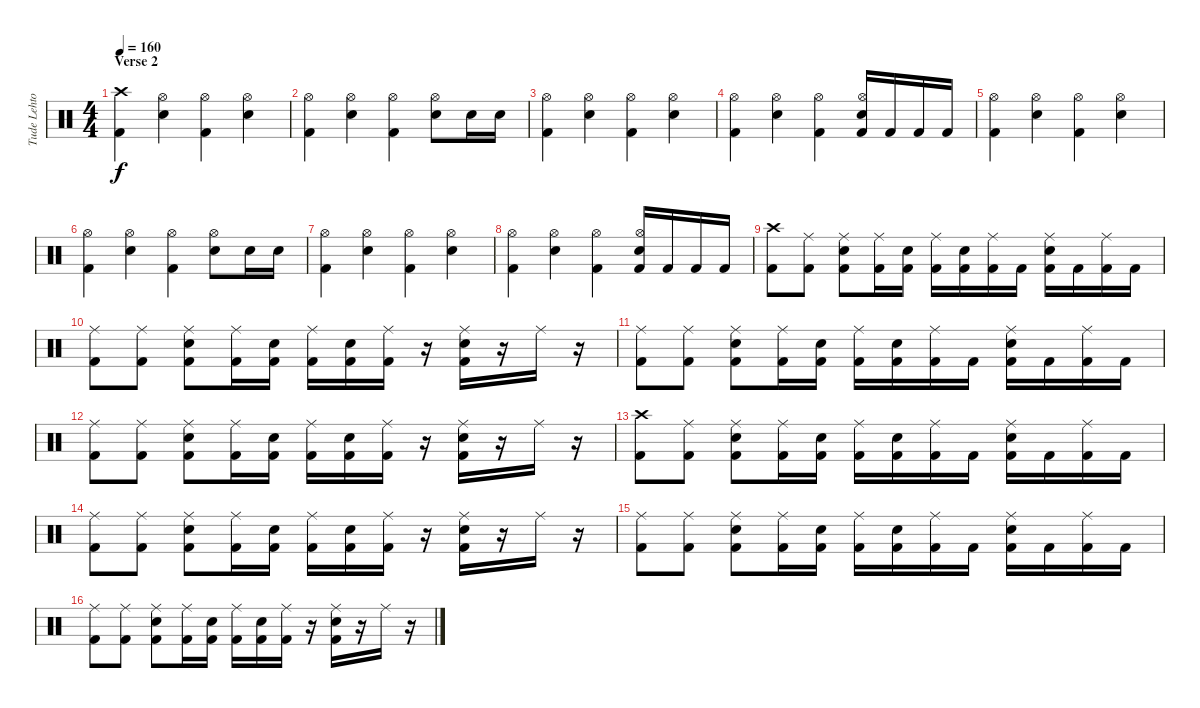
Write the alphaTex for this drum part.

\track ("Tude Lehtonen" "Tude Lehto") {instrument percussion}
\staff {score}
\articulation defaults
\ts (4 4)
\section ("" "Verse 2")
\tempo 160
\clef neutral
\ks c
("Crash high (hit)" "Kick (hit) 2").4{dy f} ("Hi-Hat (open)" "Snare (hit) 2").4 ("Hi-Hat (open)" "Kick (hit) 2").4 ("Hi-Hat (open)" "Snare (hit) 2").4 |
("Hi-Hat (open)" "Kick (hit) 2").4 ("Hi-Hat (open)" "Snare (hit) 2").4 ("Hi-Hat (open)" "Kick (hit) 2").4 ("Hi-Hat (open)" "Snare (hit) 2").8 "Snare (hit) 2".16 "Snare (hit) 2".16 |
("Hi-Hat (open)" "Kick (hit) 2").4 ("Hi-Hat (open)" "Snare (hit) 2").4 ("Hi-Hat (open)" "Kick (hit) 2").4 ("Hi-Hat (open)" "Snare (hit) 2").4 |
("Hi-Hat (open)" "Kick (hit) 2").4 ("Hi-Hat (open)" "Snare (hit) 2").4 ("Hi-Hat (open)" "Kick (hit) 2").4 ("Hi-Hat (open)" "Snare (hit) 2" "Kick (hit) 2").16 "Kick (hit) 2".16 "Kick (hit) 2".16 "Kick (hit) 2".16 |
("Hi-Hat (open)" "Kick (hit) 2").4 ("Hi-Hat (open)" "Snare (hit) 2").4 ("Hi-Hat (open)" "Kick (hit) 2").4 ("Hi-Hat (open)" "Snare (hit) 2").4 |
("Hi-Hat (open)" "Kick (hit) 2").4 ("Hi-Hat (open)" "Snare (hit) 2").4 ("Hi-Hat (open)" "Kick (hit) 2").4 ("Hi-Hat (open)" "Snare (hit) 2").8 "Snare (hit) 2".16 "Snare (hit) 2".16 |
("Hi-Hat (open)" "Kick (hit) 2").4 ("Hi-Hat (open)" "Snare (hit) 2").4 ("Hi-Hat (open)" "Kick (hit) 2").4 ("Hi-Hat (open)" "Snare (hit) 2").4 |
("Hi-Hat (open)" "Kick (hit) 2").4 ("Hi-Hat (open)" "Snare (hit) 2").4 ("Hi-Hat (open)" "Kick (hit) 2").4 ("Hi-Hat (open)" "Snare (hit) 2" "Kick (hit) 2").16 "Kick (hit) 2".16 "Kick (hit) 2".16 "Kick (hit) 2".16 |
("Crash high (hit)" "Kick (hit) 2").8 ("Ride (middle)" "Kick (hit) 2").8 ("Ride (middle)" "Snare (hit) 2" "Kick (hit) 2").8 ("Ride (middle)" "Kick (hit) 2").16 ("Snare (hit) 2" "Kick (hit) 2").16 ("Ride (middle)" "Kick (hit) 2").16 ("Snare (hit) 2" "Kick (hit) 2").16 ("Ride (middle)" "Kick (hit) 2").16 "Kick (hit) 2".16 ("Ride (middle)" "Snare (hit) 2" "Kick (hit) 2").16 "Kick (hit) 2".16 ("Ride (middle)" "Kick (hit) 2").16 "Kick (hit) 2".16 |
("Ride (middle)" "Kick (hit) 2").8 ("Ride (middle)" "Kick (hit) 2").8 ("Ride (middle)" "Snare (hit) 2" "Kick (hit) 2").8 ("Ride (middle)" "Kick (hit) 2").16 ("Snare (hit) 2" "Kick (hit) 2").16 ("Ride (middle)" "Kick (hit) 2").16 ("Snare (hit) 2" "Kick (hit) 2").16 ("Ride (middle)" "Kick (hit) 2").16 r.16 ("Ride (middle)" "Snare (hit) 2" "Kick (hit) 2").16 r.16 "Ride (middle)".16 r.16 |
("Ride (middle)" "Kick (hit) 2").8 ("Ride (middle)" "Kick (hit) 2").8 ("Ride (middle)" "Snare (hit) 2" "Kick (hit) 2").8 ("Ride (middle)" "Kick (hit) 2").16 ("Snare (hit) 2" "Kick (hit) 2").16 ("Ride (middle)" "Kick (hit) 2").16 ("Snare (hit) 2" "Kick (hit) 2").16 ("Ride (middle)" "Kick (hit) 2").16 "Kick (hit) 2".16 ("Ride (middle)" "Snare (hit) 2" "Kick (hit) 2").16 "Kick (hit) 2".16 ("Ride (middle)" "Kick (hit) 2").16 "Kick (hit) 2".16 |
("Ride (middle)" "Kick (hit) 2").8 ("Ride (middle)" "Kick (hit) 2").8 ("Ride (middle)" "Snare (hit) 2" "Kick (hit) 2").8 ("Ride (middle)" "Kick (hit) 2").16 ("Snare (hit) 2" "Kick (hit) 2").16 ("Ride (middle)" "Kick (hit) 2").16 ("Snare (hit) 2" "Kick (hit) 2").16 ("Ride (middle)" "Kick (hit) 2").16 r.16 ("Ride (middle)" "Snare (hit) 2" "Kick (hit) 2").16 r.16 "Ride (middle)".16 r.16 |
("Crash high (hit)" "Kick (hit) 2").8 ("Ride (middle)" "Kick (hit) 2").8 ("Ride (middle)" "Snare (hit) 2" "Kick (hit) 2").8 ("Ride (middle)" "Kick (hit) 2").16 ("Snare (hit) 2" "Kick (hit) 2").16 ("Ride (middle)" "Kick (hit) 2").16 ("Snare (hit) 2" "Kick (hit) 2").16 ("Ride (middle)" "Kick (hit) 2").16 "Kick (hit) 2".16 ("Ride (middle)" "Snare (hit) 2" "Kick (hit) 2").16 "Kick (hit) 2".16 ("Ride (middle)" "Kick (hit) 2").16 "Kick (hit) 2".16 |
("Ride (middle)" "Kick (hit) 2").8 ("Ride (middle)" "Kick (hit) 2").8 ("Ride (middle)" "Snare (hit) 2" "Kick (hit) 2").8 ("Ride (middle)" "Kick (hit) 2").16 ("Snare (hit) 2" "Kick (hit) 2").16 ("Ride (middle)" "Kick (hit) 2").16 ("Snare (hit) 2" "Kick (hit) 2").16 ("Ride (middle)" "Kick (hit) 2").16 r.16 ("Ride (middle)" "Snare (hit) 2" "Kick (hit) 2").16 r.16 "Ride (middle)".16 r.16 |
("Ride (middle)" "Kick (hit) 2").8 ("Ride (middle)" "Kick (hit) 2").8 ("Ride (middle)" "Snare (hit) 2" "Kick (hit) 2").8 ("Ride (middle)" "Kick (hit) 2").16 ("Snare (hit) 2" "Kick (hit) 2").16 ("Ride (middle)" "Kick (hit) 2").16 ("Snare (hit) 2" "Kick (hit) 2").16 ("Ride (middle)" "Kick (hit) 2").16 "Kick (hit) 2".16 ("Ride (middle)" "Snare (hit) 2" "Kick (hit) 2").16 "Kick (hit) 2".16 ("Ride (middle)" "Kick (hit) 2").16 "Kick (hit) 2".16 |
("Ride (middle)" "Kick (hit) 2").8 ("Ride (middle)" "Kick (hit) 2").8 ("Ride (middle)" "Snare (hit) 2" "Kick (hit) 2").8 ("Ride (middle)" "Kick (hit) 2").16 ("Snare (hit) 2" "Kick (hit) 2").16 ("Ride (middle)" "Kick (hit) 2").16 ("Snare (hit) 2" "Kick (hit) 2").16 ("Ride (middle)" "Kick (hit) 2").16 r.16 ("Ride (middle)" "Snare (hit) 2" "Kick (hit) 2").16 r.16 "Ride (middle)".16 r.16
